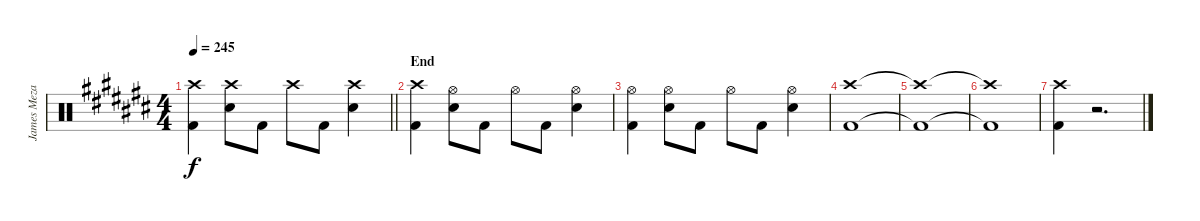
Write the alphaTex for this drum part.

\track ("James Meza" "James Meza") {instrument percussion}
\staff {score}
\articulation defaults
\ts (4 4)
\tempo 245
\clef neutral
\barLineRight lightlight
\ks c#
("Crash high (hit)" "Kick (hit) 2").4{dy f} ("Crash high (hit)" "Snare (hit) 2").8 "Kick (hit) 2".8 "Crash high (hit)".8 "Kick (hit) 2".8 ("Crash high (hit)" "Snare (hit) 2").4 |
\section ("" "End")
("Crash high (hit)" "Kick (hit) 2").4 ("Hi-Hat (open)" "Snare (hit) 2").8 "Kick (hit) 2".8 "Hi-Hat (open)".8 "Kick (hit) 2".8 ("Hi-Hat (open)" "Snare (hit) 2").4 |
("Hi-Hat (open)" "Kick (hit) 2").4 ("Hi-Hat (open)" "Snare (hit) 2").8 "Kick (hit) 2".8 "Hi-Hat (open)".8 "Kick (hit) 2".8 ("Hi-Hat (open)" "Snare (hit) 2").4 |
("Crash high (hit)" "Kick (hit) 2").1 |
("Crash high (hit)"{t} "Kick (hit) 2"{t}).1 |
("Crash high (hit)"{t} "Kick (hit) 2"{t}).1 |
("Crash high (hit)" "Kick (hit) 2").4 r.2{d}
